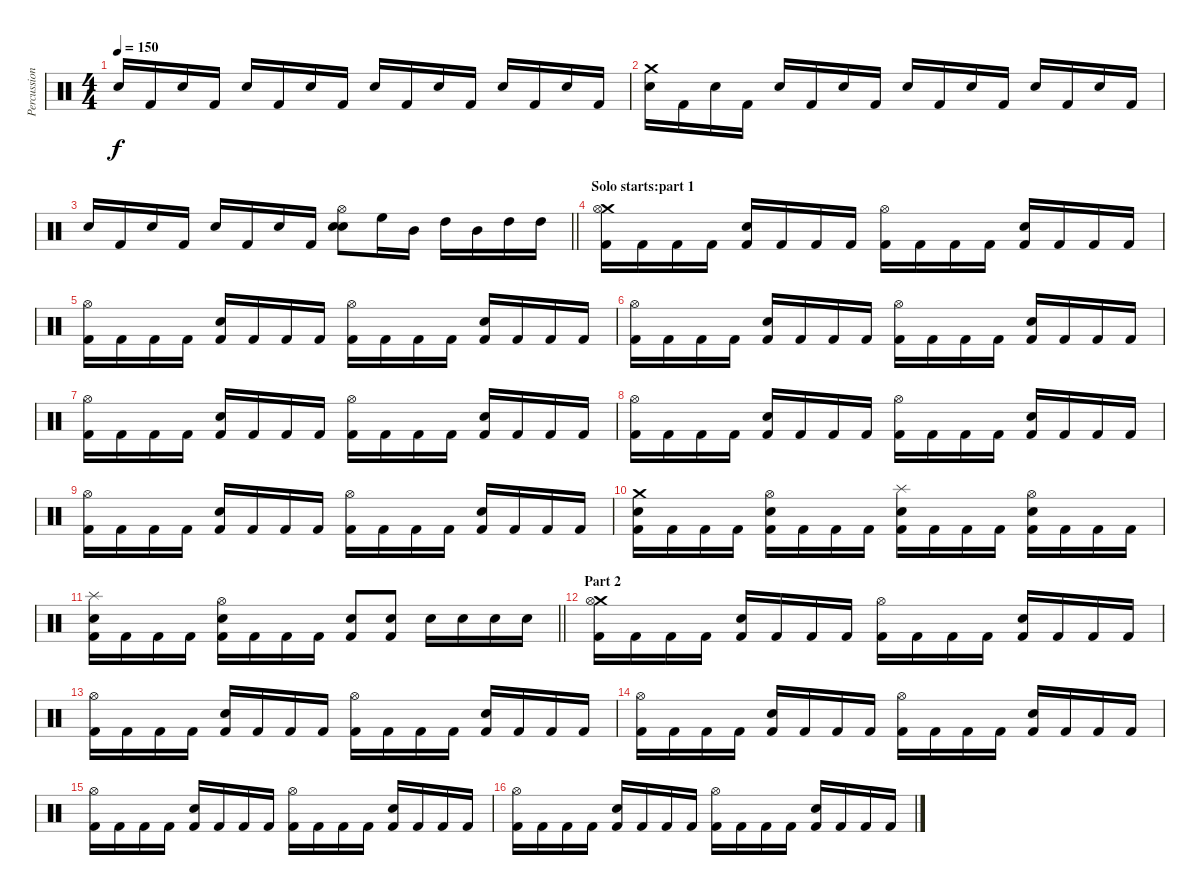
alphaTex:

\track ("Percussion" "Percussion") {instrument percussion}
\staff {score}
\articulation defaults
\ts (4 4)
\tempo 150
\clef neutral
\ks c "Snare (hit) 2".16{dy f} "Kick (hit) 2".16 "Snare (hit) 2".16 "Kick (hit) 2".16 "Snare (hit) 2".16 "Kick (hit) 2".16 "Snare (hit) 2".16 "Kick (hit) 2".16 "Snare (hit) 2".16 "Kick (hit) 2".16 "Snare (hit) 2".16 "Kick (hit) 2".16 "Snare (hit) 2".16 "Kick (hit) 2".16 "Snare (hit) 2".16 "Kick (hit) 2".16
|
("Crash medium (hit)" "Snare (hit) 2").16 "Kick (hit) 2".16 "Snare (hit) 2".16 "Kick (hit) 2".16 "Snare (hit) 2".16 "Kick (hit) 2".16 "Snare (hit) 2".16 "Kick (hit) 2".16 "Snare (hit) 2".16 "Kick (hit) 2".16 "Snare (hit) 2".16 "Kick (hit) 2".16 "Snare (hit) 2".16 "Kick (hit) 2".16 "Snare (hit) 2".16 "Kick (hit) 2".16 |
\barLineRight lightlight "Snare (hit) 2".16 "Kick (hit) 2".16 "Snare (hit) 2".16 "Kick (hit) 2".16 "Snare (hit) 2".16 "Kick (hit) 2".16 "Snare (hit) 2".16 "Kick (hit) 2".16
("Hi-Hat (open)" "Snare (hit) 2" "Electric Snare (hit)").8 "High Floor Tom (hit)".16 "Mid Tom (hit)".16 "High Tom (hit)".16 "Mid Tom (hit)".16 "High Tom (hit)".16 "High Tom (hit)".16 |
\section ("" "Solo starts:part 1")
("Crash medium (hit)" "Hi-Hat (open)" "Kick (hit) 2").16 "Kick (hit) 2".16 "Kick (hit) 2".16 "Kick (hit) 2".16 ("Snare (hit) 2" "Kick (hit) 2").16 "Kick (hit) 2".16 "Kick (hit) 2".16 "Kick (hit) 2".16 ("Hi-Hat (open)" "Kick (hit) 2").16 "Kick (hit) 2".16 "Kick (hit) 2".16 "Kick (hit) 2".16 ("Snare (hit) 2" "Kick (hit) 2").16 "Kick (hit) 2".16 "Kick (hit) 2".16 "Kick (hit) 2".16 |
("Hi-Hat (open)" "Kick (hit) 2").16 "Kick (hit) 2".16 "Kick (hit) 2".16 "Kick (hit) 2".16 ("Snare (hit) 2" "Kick (hit) 2").16 "Kick (hit) 2".16 "Kick (hit) 2".16 "Kick (hit) 2".16 ("Hi-Hat (open)" "Kick (hit) 2").16 "Kick (hit) 2".16 "Kick (hit) 2".16 "Kick (hit) 2".16 ("Snare (hit) 2" "Kick (hit) 2").16 "Kick (hit) 2".16 "Kick (hit) 2".16 "Kick (hit) 2".16 |
("Hi-Hat (open)" "Kick (hit) 2").16 "Kick (hit) 2".16 "Kick (hit) 2".16 "Kick (hit) 2".16 ("Snare (hit) 2" "Kick (hit) 2").16 "Kick (hit) 2".16 "Kick (hit) 2".16 "Kick (hit) 2".16 ("Hi-Hat (open)" "Kick (hit) 2").16 "Kick (hit) 2".16 "Kick (hit) 2".16 "Kick (hit) 2".16 ("Snare (hit) 2" "Kick (hit) 2").16 "Kick (hit) 2".16 "Kick (hit) 2".16 "Kick (hit) 2".16 |
("Hi-Hat (open)" "Kick (hit) 2").16 "Kick (hit) 2".16 "Kick (hit) 2".16 "Kick (hit) 2".16 ("Snare (hit) 2" "Kick (hit) 2").16 "Kick (hit) 2".16 "Kick (hit) 2".16 "Kick (hit) 2".16 ("Hi-Hat (open)" "Kick (hit) 2").16 "Kick (hit) 2".16 "Kick (hit) 2".16 "Kick (hit) 2".16 ("Snare (hit) 2" "Kick (hit) 2").16 "Kick (hit) 2".16 "Kick (hit) 2".16 "Kick (hit) 2".16 |
("Hi-Hat (open)" "Kick (hit) 2").16 "Kick (hit) 2".16 "Kick (hit) 2".16 "Kick (hit) 2".16 ("Snare (hit) 2" "Kick (hit) 2").16 "Kick (hit) 2".16 "Kick (hit) 2".16 "Kick (hit) 2".16 ("Hi-Hat (open)" "Kick (hit) 2").16 "Kick (hit) 2".16 "Kick (hit) 2".16 "Kick (hit) 2".16 ("Snare (hit) 2" "Kick (hit) 2").16 "Kick (hit) 2".16 "Kick (hit) 2".16 "Kick (hit) 2".16 |
("Hi-Hat (open)" "Kick (hit) 2").16 "Kick (hit) 2".16 "Kick (hit) 2".16 "Kick (hit) 2".16 ("Snare (hit) 2" "Kick (hit) 2").16 "Kick (hit) 2".16 "Kick (hit) 2".16 "Kick (hit) 2".16 ("Hi-Hat (open)" "Kick (hit) 2").16 "Kick (hit) 2".16 "Kick (hit) 2".16 "Kick (hit) 2".16 ("Snare (hit) 2" "Kick (hit) 2").16 "Kick (hit) 2".16 "Kick (hit) 2".16 "Kick (hit) 2".16 |
("Crash medium (hit)" "Snare (hit) 2" "Kick (hit) 2").16 "Kick (hit) 2".16 "Kick (hit) 2".16 "Kick (hit) 2".16 ("Hi-Hat (open)" "Snare (hit) 2" "Kick (hit) 2").16 "Kick (hit) 2".16 "Kick (hit) 2".16 "Kick (hit) 2".16 ("Splash (hit)" "Snare (hit) 2" "Kick (hit) 2").16 "Kick (hit) 2".16 "Kick (hit) 2".16 "Kick (hit) 2".16 ("Hi-Hat (open)" "Snare (hit) 2" "Kick (hit) 2").16 "Kick (hit) 2".16 "Kick (hit) 2".16 "Kick (hit) 2".16 |
\barLineRight lightlight
("Splash (hit)" "Snare (hit) 2" "Kick (hit) 2").16 "Kick (hit) 2".16 "Kick (hit) 2".16 "Kick (hit) 2".16 ("Hi-Hat (open)" "Snare (hit) 2" "Kick (hit) 2").16 "Kick (hit) 2".16 "Kick (hit) 2".16 "Kick (hit) 2".16 ("Kick (hit) 2" "Snare (hit) 2").8 ("Kick (hit) 2" "Snare (hit) 2").8 "Snare (hit) 2".16 "Snare (hit) 2".16 "Snare (hit) 2".16 "Snare (hit) 2".16 |
\section ("" "Part 2")
("Crash medium (hit)" "Hi-Hat (open)" "Kick (hit) 2").16 "Kick (hit) 2".16 "Kick (hit) 2".16 "Kick (hit) 2".16 ("Snare (hit) 2" "Kick (hit) 2").16 "Kick (hit) 2".16 "Kick (hit) 2".16 "Kick (hit) 2".16 ("Hi-Hat (open)" "Kick (hit) 2").16 "Kick (hit) 2".16 "Kick (hit) 2".16 "Kick (hit) 2".16 ("Snare (hit) 2" "Kick (hit) 2").16 "Kick (hit) 2".16 "Kick (hit) 2".16 "Kick (hit) 2".16 |
("Hi-Hat (open)" "Kick (hit) 2").16 "Kick (hit) 2".16 "Kick (hit) 2".16 "Kick (hit) 2".16 ("Snare (hit) 2" "Kick (hit) 2").16 "Kick (hit) 2".16 "Kick (hit) 2".16 "Kick (hit) 2".16 ("Hi-Hat (open)" "Kick (hit) 2").16 "Kick (hit) 2".16 "Kick (hit) 2".16 "Kick (hit) 2".16 ("Snare (hit) 2" "Kick (hit) 2").16 "Kick (hit) 2".16 "Kick (hit) 2".16 "Kick (hit) 2".16 |
("Hi-Hat (open)" "Kick (hit) 2").16 "Kick (hit) 2".16 "Kick (hit) 2".16 "Kick (hit) 2".16 ("Snare (hit) 2" "Kick (hit) 2").16 "Kick (hit) 2".16 "Kick (hit) 2".16 "Kick (hit) 2".16 ("Hi-Hat (open)" "Kick (hit) 2").16 "Kick (hit) 2".16 "Kick (hit) 2".16 "Kick (hit) 2".16 ("Snare (hit) 2" "Kick (hit) 2").16 "Kick (hit) 2".16 "Kick (hit) 2".16 "Kick (hit) 2".16 |
("Hi-Hat (open)" "Kick (hit) 2").16 "Kick (hit) 2".16 "Kick (hit) 2".16 "Kick (hit) 2".16 ("Snare (hit) 2" "Kick (hit) 2").16 "Kick (hit) 2".16 "Kick (hit) 2".16 "Kick (hit) 2".16 ("Hi-Hat (open)" "Kick (hit) 2").16 "Kick (hit) 2".16 "Kick (hit) 2".16 "Kick (hit) 2".16 ("Snare (hit) 2" "Kick (hit) 2").16 "Kick (hit) 2".16 "Kick (hit) 2".16 "Kick (hit) 2".16 |
("Hi-Hat (open)" "Kick (hit) 2").16 "Kick (hit) 2".16 "Kick (hit) 2".16 "Kick (hit) 2".16 ("Snare (hit) 2" "Kick (hit) 2").16 "Kick (hit) 2".16 "Kick (hit) 2".16 "Kick (hit) 2".16 ("Hi-Hat (open)" "Kick (hit) 2").16 "Kick (hit) 2".16 "Kick (hit) 2".16 "Kick (hit) 2".16 ("Snare (hit) 2" "Kick (hit) 2").16 "Kick (hit) 2".16 "Kick (hit) 2".16 "Kick (hit) 2".16
